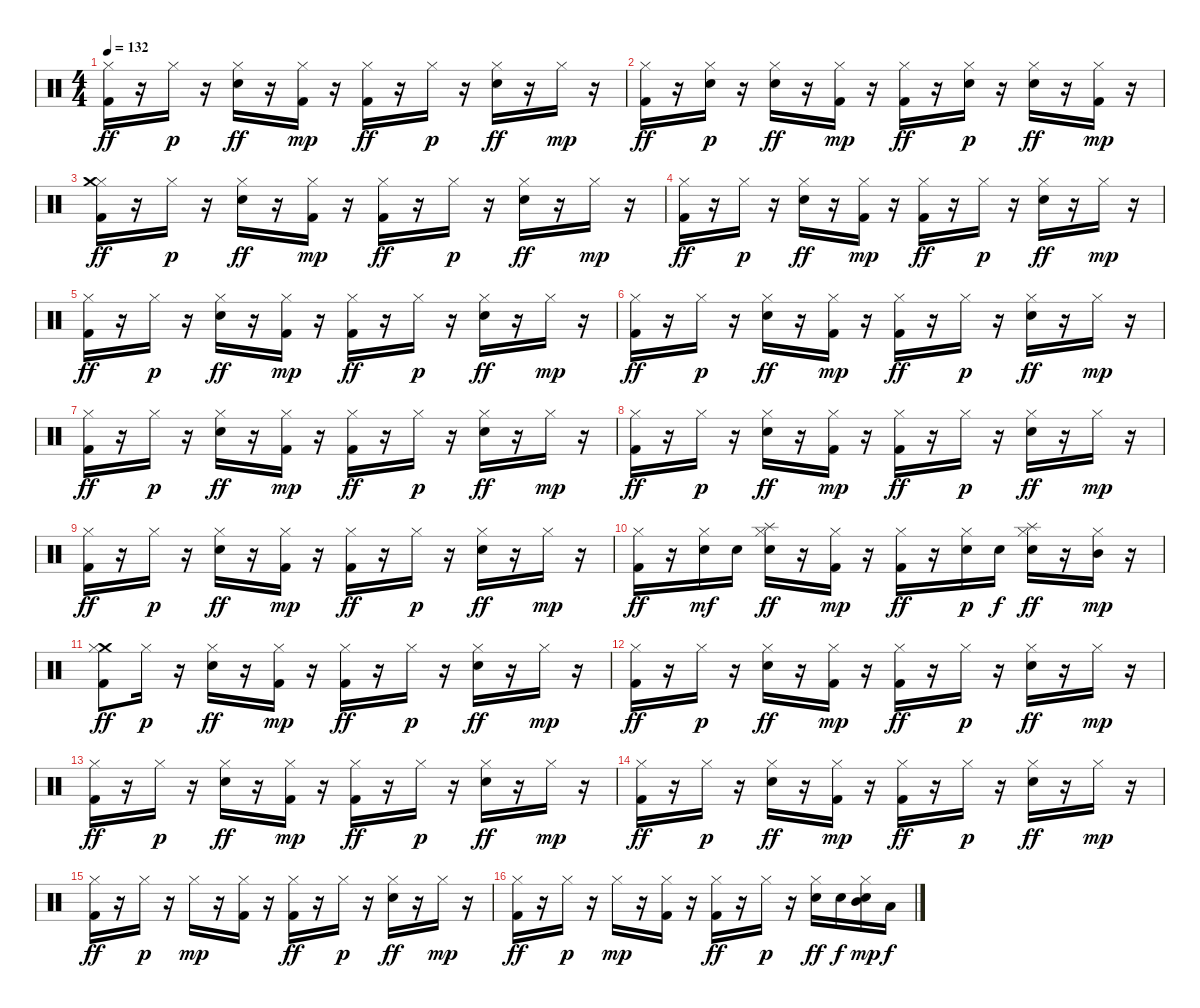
\track "" {instrument percussion}
\staff {score}
\articulation defaults
\ts (4 4)
\tempo 132
\clef neutral
\ks c
("Hi-Hat (closed)" "Kick (hit) 2").16{dy ff} r.16 "Hi-Hat (closed)".16{dy p} r.16 ("Hi-Hat (closed)" "Snare (hit) 2").16{dy ff} r.16 ("Kick (hit) 2" "Hi-Hat (closed)").16{dy mp} r.16 ("Hi-Hat (closed)" "Kick (hit) 2").16{dy ff} r.16 "Hi-Hat (closed)".16{dy p} r.16 ("Hi-Hat (closed)" "Snare (hit) 2").16{dy ff} r.16 "Hi-Hat (closed)".16{dy mp} r.16 |
("Hi-Hat (closed)" "Kick (hit) 2").16{dy ff} r.16 ("Snare (hit) 2" "Hi-Hat (closed)").16{dy p} r.16 ("Hi-Hat (closed)" "Snare (hit) 2").16{dy ff} r.16 ("Kick (hit) 2" "Hi-Hat (closed)").16{dy mp} r.16 ("Hi-Hat (closed)" "Kick (hit) 2").16{dy ff} r.16 ("Snare (hit) 2" "Hi-Hat (closed)").16{dy p} r.16 ("Hi-Hat (closed)" "Snare (hit) 2").16{dy ff} r.16 ("Kick (hit) 2" "Hi-Hat (closed)").16{dy mp} r.16 |
("Hi-Hat (closed)" "Kick (hit) 2" "Crash medium (hit)").16{dy ff} r.16 "Hi-Hat (closed)".16{dy p} r.16 ("Hi-Hat (closed)" "Snare (hit) 2").16{dy ff} r.16 ("Kick (hit) 2" "Hi-Hat (closed)").16{dy mp} r.16 ("Hi-Hat (closed)" "Kick (hit) 2").16{dy ff} r.16 "Hi-Hat (closed)".16{dy p} r.16 ("Hi-Hat (closed)" "Snare (hit) 2").16{dy ff} r.16 "Hi-Hat (closed)".16{dy mp} r.16 |
("Hi-Hat (closed)" "Kick (hit) 2").16{dy ff} r.16 "Hi-Hat (closed)".16{dy p} r.16 ("Hi-Hat (closed)" "Snare (hit) 2").16{dy ff} r.16 ("Kick (hit) 2" "Hi-Hat (closed)").16{dy mp} r.16 ("Hi-Hat (closed)" "Kick (hit) 2").16{dy ff} r.16 "Hi-Hat (closed)".16{dy p} r.16 ("Hi-Hat (closed)" "Snare (hit) 2").16{dy ff} r.16 "Hi-Hat (closed)".16{dy mp} r.16 |
("Hi-Hat (closed)" "Kick (hit) 2").16{dy ff} r.16 "Hi-Hat (closed)".16{dy p} r.16 ("Hi-Hat (closed)" "Snare (hit) 2").16{dy ff} r.16 ("Kick (hit) 2" "Hi-Hat (closed)").16{dy mp} r.16 ("Hi-Hat (closed)" "Kick (hit) 2").16{dy ff} r.16 "Hi-Hat (closed)".16{dy p} r.16 ("Hi-Hat (closed)" "Snare (hit) 2").16{dy ff} r.16 "Hi-Hat (closed)".16{dy mp} r.16 |
("Hi-Hat (closed)" "Kick (hit) 2").16{dy ff} r.16 "Hi-Hat (closed)".16{dy p} r.16 ("Hi-Hat (closed)" "Snare (hit) 2").16{dy ff} r.16 ("Kick (hit) 2" "Hi-Hat (closed)").16{dy mp} r.16 ("Hi-Hat (closed)" "Kick (hit) 2").16{dy ff} r.16 "Hi-Hat (closed)".16{dy p} r.16 ("Hi-Hat (closed)" "Snare (hit) 2").16{dy ff} r.16 "Hi-Hat (closed)".16{dy mp} r.16 |
("Hi-Hat (closed)" "Kick (hit) 2").16{dy ff} r.16 "Hi-Hat (closed)".16{dy p} r.16 ("Hi-Hat (closed)" "Snare (hit) 2").16{dy ff} r.16 ("Kick (hit) 2" "Hi-Hat (closed)").16{dy mp} r.16 ("Hi-Hat (closed)" "Kick (hit) 2").16{dy ff} r.16 "Hi-Hat (closed)".16{dy p} r.16 ("Hi-Hat (closed)" "Snare (hit) 2").16{dy ff} r.16 "Hi-Hat (closed)".16{dy mp} r.16 |
("Hi-Hat (closed)" "Kick (hit) 2").16{dy ff} r.16 "Hi-Hat (closed)".16{dy p} r.16 ("Hi-Hat (closed)" "Snare (hit) 2").16{dy ff} r.16 ("Kick (hit) 2" "Hi-Hat (closed)").16{dy mp} r.16 ("Hi-Hat (closed)" "Kick (hit) 2").16{dy ff} r.16 "Hi-Hat (closed)".16{dy p} r.16 ("Hi-Hat (closed)" "Snare (hit) 2").16{dy ff} r.16 "Hi-Hat (closed)".16{dy mp} r.16 |
("Hi-Hat (closed)" "Kick (hit) 2").16{dy ff} r.16 "Hi-Hat (closed)".16{dy p} r.16 ("Hi-Hat (closed)" "Snare (hit) 2").16{dy ff} r.16 ("Kick (hit) 2" "Hi-Hat (closed)").16{dy mp} r.16 ("Hi-Hat (closed)" "Kick (hit) 2").16{dy ff} r.16 "Hi-Hat (closed)".16{dy p} r.16 ("Hi-Hat (closed)" "Snare (hit) 2").16{dy ff} r.16 "Hi-Hat (closed)".16{dy mp} r.16 |
("Hi-Hat (closed)" "Kick (hit) 2").16{dy ff} r.16 ("Hi-Hat (closed)" "Snare (hit) 2").16{dy mf} "Snare (hit) 2".16 ("Splash (hit)" "Hi-Hat (closed)" "Snare (hit) 2").16{dy ff} r.16 ("Kick (hit) 2" "Hi-Hat (closed)").16{dy mp} r.16 ("Hi-Hat (closed)" "Kick (hit) 2").16{dy ff} r.16 ("Snare (hit) 2" "Hi-Hat (closed)").16{dy p} "Snare (hit) 2".16{dy f} ("Hi-Hat (closed)" "Snare (hit) 2" "Splash (hit)").16{dy ff} r.16 ("Hi-Hat (closed)" "Mid Tom (hit)").16{dy mp} r.16 |
("Crash medium (hit)" "Hi-Hat (closed)" "Kick (hit) 2").8{dy ff} "Hi-Hat (closed)".16{dy p} r.16 ("Hi-Hat (closed)" "Snare (hit) 2").16{dy ff} r.16 ("Kick (hit) 2" "Hi-Hat (closed)").16{dy mp} r.16 ("Hi-Hat (closed)" "Kick (hit) 2").16{dy ff} r.16 "Hi-Hat (closed)".16{dy p} r.16 ("Hi-Hat (closed)" "Snare (hit) 2").16{dy ff} r.16 "Hi-Hat (closed)".16{dy mp} r.16 |
("Hi-Hat (closed)" "Kick (hit) 2").16{dy ff} r.16 "Hi-Hat (closed)".16{dy p} r.16 ("Hi-Hat (closed)" "Snare (hit) 2").16{dy ff} r.16 ("Kick (hit) 2" "Hi-Hat (closed)").16{dy mp} r.16 ("Hi-Hat (closed)" "Kick (hit) 2").16{dy ff} r.16 "Hi-Hat (closed)".16{dy p} r.16 ("Hi-Hat (closed)" "Snare (hit) 2").16{dy ff} r.16 "Hi-Hat (closed)".16{dy mp} r.16 |
("Hi-Hat (closed)" "Kick (hit) 2").16{dy ff} r.16 "Hi-Hat (closed)".16{dy p} r.16 ("Hi-Hat (closed)" "Snare (hit) 2").16{dy ff} r.16 ("Kick (hit) 2" "Hi-Hat (closed)").16{dy mp} r.16 ("Hi-Hat (closed)" "Kick (hit) 2").16{dy ff} r.16 "Hi-Hat (closed)".16{dy p} r.16 ("Hi-Hat (closed)" "Snare (hit) 2").16{dy ff} r.16 "Hi-Hat (closed)".16{dy mp} r.16 |
("Hi-Hat (closed)" "Kick (hit) 2").16{dy ff} r.16 "Hi-Hat (closed)".16{dy p} r.16 ("Hi-Hat (closed)" "Snare (hit) 2").16{dy ff} r.16 ("Kick (hit) 2" "Hi-Hat (closed)").16{dy mp} r.16 ("Hi-Hat (closed)" "Kick (hit) 2").16{dy ff} r.16 "Hi-Hat (closed)".16{dy p} r.16 ("Hi-Hat (closed)" "Snare (hit) 2").16{dy ff} r.16 "Hi-Hat (closed)".16{dy mp} r.16 |
("Hi-Hat (closed)" "Kick (hit) 2").16{dy ff} r.16 "Hi-Hat (closed)".16{dy p} r.16 "Hi-Hat (closed)".16{dy mp} r.16 ("Kick (hit) 2" "Hi-Hat (closed)").16 r.16 ("Hi-Hat (closed)" "Kick (hit) 2").16{dy ff} r.16 "Hi-Hat (closed)".16{dy p} r.16 ("Hi-Hat (closed)" "Snare (hit) 2").16{dy ff} r.16 "Hi-Hat (closed)".16{dy mp} r.16 |
("Hi-Hat (closed)" "Kick (hit) 2").16{dy ff} r.16 "Hi-Hat (closed)".16{dy p} r.16 "Hi-Hat (closed)".16{dy mp} r.16 ("Kick (hit) 2" "Hi-Hat (closed)").16 r.16 ("Hi-Hat (closed)" "Kick (hit) 2").16{dy ff} r.16 "Hi-Hat (closed)".16{dy p} r.16 ("Hi-Hat (closed)" "Snare (hit) 2").16{dy ff} "Snare (hit) 2".16{dy f} ("Snare (hit) 2" "Hi-Hat (closed)" "Mid Tom (hit)").16{dy mp} "Low Tom (hit)".16{dy f}
